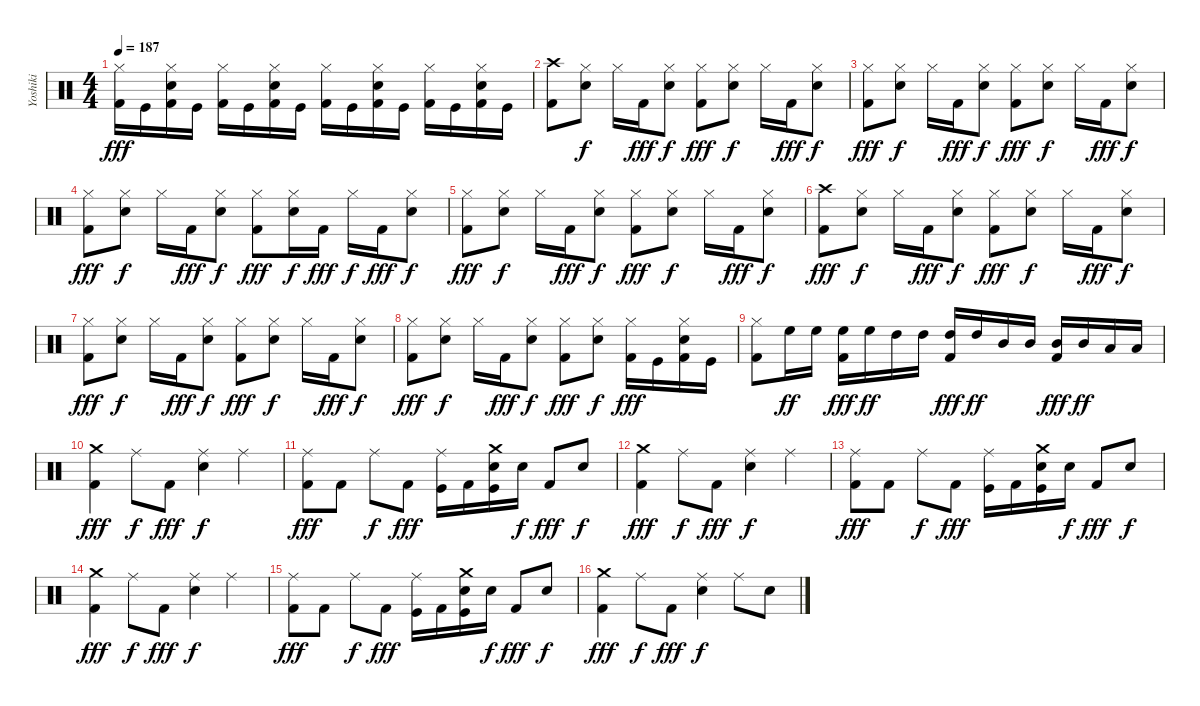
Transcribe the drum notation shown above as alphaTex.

\track ("Yoshiki" "Yoshiki") {instrument percussion}
\staff {score}
\articulation defaults
\ts (4 4)
\tempo 187
\clef neutral
\ks c
("Hi-Hat (closed)" "Kick (hit) 2").16{dy fff} "Kick (hit)".16 ("Hi-Hat (closed)" "Electric Snare (hit)" "Kick (hit) 2").16 "Kick (hit)".16 ("Hi-Hat (closed)" "Kick (hit) 2").16 "Kick (hit)".16 ("Hi-Hat (closed)" "Electric Snare (hit)" "Kick (hit) 2").16 "Kick (hit)".16 ("Hi-Hat (closed)" "Kick (hit) 2").16 "Kick (hit)".16 ("Hi-Hat (closed)" "Electric Snare (hit)" "Kick (hit) 2").16 "Kick (hit)".16 ("Hi-Hat (closed)" "Kick (hit) 2").16 "Kick (hit)".16 ("Hi-Hat (closed)" "Electric Snare (hit)" "Kick (hit) 2").16 "Kick (hit)".16 |
("Crash high (hit)" "Kick (hit) 2").8 ("Hi-Hat (closed)" "Electric Snare (hit)").8{dy f} "Hi-Hat (closed)".16 "Kick (hit) 2".16{dy fff} ("Hi-Hat (closed)" "Electric Snare (hit)").8{dy f} ("Hi-Hat (closed)" "Kick (hit) 2").8{dy fff} ("Hi-Hat (closed)" "Electric Snare (hit)").8{dy f} "Hi-Hat (closed)".16 "Kick (hit) 2".16{dy fff} ("Hi-Hat (closed)" "Electric Snare (hit)").8{dy f} |
("Hi-Hat (closed)" "Kick (hit) 2").8{dy fff} ("Hi-Hat (closed)" "Electric Snare (hit)").8{dy f} "Hi-Hat (closed)".16 "Kick (hit) 2".16{dy fff} ("Hi-Hat (closed)" "Electric Snare (hit)").8{dy f} ("Hi-Hat (closed)" "Kick (hit) 2").8{dy fff} ("Hi-Hat (closed)" "Electric Snare (hit)").8{dy f} "Hi-Hat (closed)".16 "Kick (hit) 2".16{dy fff} ("Hi-Hat (closed)" "Electric Snare (hit)").8{dy f} |
("Hi-Hat (closed)" "Kick (hit) 2").8{dy fff} ("Hi-Hat (closed)" "Electric Snare (hit)").8{dy f} "Hi-Hat (closed)".16 "Kick (hit) 2".16{dy fff} ("Hi-Hat (closed)" "Electric Snare (hit)").8{dy f} ("Hi-Hat (closed)" "Kick (hit) 2").8{dy fff} ("Hi-Hat (closed)" "Electric Snare (hit)").16{dy f} "Kick (hit) 2".16{dy fff} "Hi-Hat (closed)".16{dy f} "Kick (hit) 2".16{dy fff} ("Hi-Hat (closed)" "Electric Snare (hit)").8{dy f} |
("Hi-Hat (closed)" "Kick (hit) 2").8{dy fff} ("Hi-Hat (closed)" "Electric Snare (hit)").8{dy f} "Hi-Hat (closed)".16 "Kick (hit) 2".16{dy fff} ("Hi-Hat (closed)" "Electric Snare (hit)").8{dy f} ("Hi-Hat (closed)" "Kick (hit) 2").8{dy fff} ("Hi-Hat (closed)" "Electric Snare (hit)").8{dy f} "Hi-Hat (closed)".16 "Kick (hit) 2".16{dy fff} ("Hi-Hat (closed)" "Electric Snare (hit)").8{dy f} |
("Crash high (hit)" "Kick (hit) 2").8{dy fff} ("Hi-Hat (closed)" "Electric Snare (hit)").8{dy f} "Hi-Hat (closed)".16 "Kick (hit) 2".16{dy fff} ("Hi-Hat (closed)" "Electric Snare (hit)").8{dy f} ("Hi-Hat (closed)" "Kick (hit) 2").8{dy fff} ("Hi-Hat (closed)" "Electric Snare (hit)").8{dy f} "Hi-Hat (closed)".16 "Kick (hit) 2".16{dy fff} ("Hi-Hat (closed)" "Electric Snare (hit)").8{dy f} |
("Hi-Hat (closed)" "Kick (hit) 2").8{dy fff} ("Hi-Hat (closed)" "Electric Snare (hit)").8{dy f} "Hi-Hat (closed)".16 "Kick (hit) 2".16{dy fff} ("Hi-Hat (closed)" "Electric Snare (hit)").8{dy f} ("Hi-Hat (closed)" "Kick (hit) 2").8{dy fff} ("Hi-Hat (closed)" "Electric Snare (hit)").8{dy f} "Hi-Hat (closed)".16 "Kick (hit) 2".16{dy fff} ("Hi-Hat (closed)" "Electric Snare (hit)").8{dy f} |
("Hi-Hat (closed)" "Kick (hit) 2").8{dy fff} ("Hi-Hat (closed)" "Electric Snare (hit)").8{dy f} "Hi-Hat (closed)".16 "Kick (hit) 2".16{dy fff} ("Hi-Hat (closed)" "Electric Snare (hit)").8{dy f} ("Hi-Hat (closed)" "Kick (hit) 2").8{dy fff} ("Hi-Hat (closed)" "Electric Snare (hit)").8{dy f} ("Hi-Hat (closed)" "Kick (hit) 2").16{dy fff} "Kick (hit)".16 ("Hi-Hat (closed)" "Electric Snare (hit)" "Kick (hit) 2").16 "Kick (hit)".16 |
("Hi-Hat (closed)" "Kick (hit) 2").8 "High Floor Tom (hit)".16{dy ff} "High Floor Tom (hit)".16 ("High Floor Tom (hit)" "Kick (hit) 2").16{dy fff} "High Floor Tom (hit)".16{dy ff} "High Tom (hit)".16 "High Tom (hit)".16 ("High Tom (hit)" "Kick (hit) 2").16{dy fff} "High Tom (hit)".16{dy ff} "Mid Tom (hit)".16 "Mid Tom (hit)".16 ("Mid Tom (hit)" "Kick (hit) 2").16{dy fff} "Mid Tom (hit)".16{dy ff} "Low Tom (hit)".16 "Low Tom (hit)".16 |
("Crash medium (hit)" "Kick (hit) 2").4{dy fff} "Ride (middle)".8{dy f} "Kick (hit) 2".8{dy fff} ("Ride (middle)" "Electric Snare (hit)").4{dy f} "Ride (middle)".4 |
("Ride (middle)" "Kick (hit) 2").8{dy fff} "Kick (hit) 2".8 "Ride (middle)".8{dy f} "Kick (hit) 2".8{dy fff} ("Ride (middle)" "Kick (hit)").16 "Kick (hit) 2".16 ("Crash medium (hit)" "Electric Snare (hit)" "Kick (hit)").16 "Electric Snare (hit)".16{dy f} "Kick (hit) 2".8{dy fff} "Electric Snare (hit)".8{dy f} |
("Crash medium (hit)" "Kick (hit) 2").4{dy fff} "Ride (middle)".8{dy f} "Kick (hit) 2".8{dy fff} ("Ride (middle)" "Electric Snare (hit)").4{dy f} "Ride (middle)".4 |
("Ride (middle)" "Kick (hit) 2").8{dy fff} "Kick (hit) 2".8 "Ride (middle)".8{dy f} "Kick (hit) 2".8{dy fff} ("Ride (middle)" "Kick (hit)").16 "Kick (hit) 2".16 ("Crash medium (hit)" "Electric Snare (hit)" "Kick (hit)").16 "Electric Snare (hit)".16{dy f} "Kick (hit) 2".8{dy fff} "Electric Snare (hit)".8{dy f} |
("Crash medium (hit)" "Kick (hit) 2").4{dy fff} "Ride (middle)".8{dy f} "Kick (hit) 2".8{dy fff} ("Ride (middle)" "Electric Snare (hit)").4{dy f} "Ride (middle)".4 |
("Ride (middle)" "Kick (hit) 2").8{dy fff} "Kick (hit) 2".8 "Ride (middle)".8{dy f} "Kick (hit) 2".8{dy fff} ("Ride (middle)" "Kick (hit)").16 "Kick (hit) 2".16 ("Crash medium (hit)" "Electric Snare (hit)" "Kick (hit)").16 "Electric Snare (hit)".16{dy f} "Kick (hit) 2".8{dy fff} "Electric Snare (hit)".8{dy f} |
("Crash medium (hit)" "Kick (hit) 2").4{dy fff} "Ride (middle)".8{dy f} "Kick (hit) 2".8{dy fff} ("Ride (middle)" "Electric Snare (hit)").4{dy f} "Ride (middle)".8 "Electric Snare (hit)".8
